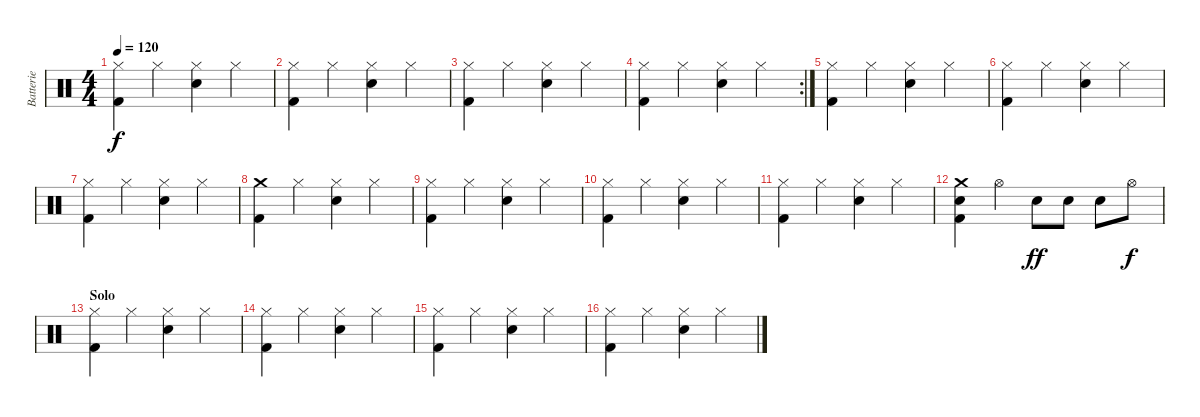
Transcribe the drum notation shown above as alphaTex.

\track ("Batterie" "Batterie") {instrument percussion}
\staff {score}
\articulation defaults
\ts (4 4)
\tempo 120
\clef neutral
\ks c
("Hi-Hat (closed)" "Kick (hit) 2").4{dy f} "Hi-Hat (closed)".4 ("Hi-Hat (closed)" "Snare (hit) 2").4 "Hi-Hat (closed)".4 |
("Hi-Hat (closed)" "Kick (hit) 2").4 "Hi-Hat (closed)".4 ("Hi-Hat (closed)" "Snare (hit) 2").4 "Hi-Hat (closed)".4 |
("Hi-Hat (closed)" "Kick (hit) 2").4 "Hi-Hat (closed)".4 ("Hi-Hat (closed)" "Snare (hit) 2").4 "Hi-Hat (closed)".4 |
\rc 2
("Hi-Hat (closed)" "Kick (hit) 2").4 "Hi-Hat (closed)".4 ("Hi-Hat (closed)" "Snare (hit) 2").4 "Hi-Hat (closed)".4 |
("Hi-Hat (closed)" "Kick (hit) 2").4 "Hi-Hat (closed)".4 ("Hi-Hat (closed)" "Snare (hit) 2").4 "Hi-Hat (closed)".4 |
("Hi-Hat (closed)" "Kick (hit) 2").4 "Hi-Hat (closed)".4 ("Hi-Hat (closed)" "Snare (hit) 2").4 "Hi-Hat (closed)".4 |
("Hi-Hat (closed)" "Kick (hit) 2").4 "Hi-Hat (closed)".4 ("Hi-Hat (closed)" "Snare (hit) 2").4 "Hi-Hat (closed)".4 |
("Crash medium (hit)" "Kick (hit) 2").4 "Hi-Hat (closed)".4 ("Hi-Hat (closed)" "Snare (hit) 2").4 "Hi-Hat (closed)".4 |
("Hi-Hat (closed)" "Kick (hit) 2").4 "Hi-Hat (closed)".4 ("Hi-Hat (closed)" "Snare (hit) 2").4 "Hi-Hat (closed)".4 |
("Hi-Hat (closed)" "Kick (hit) 2").4 "Hi-Hat (closed)".4 ("Hi-Hat (closed)" "Snare (hit) 2").4 "Hi-Hat (closed)".4 |
("Hi-Hat (closed)" "Kick (hit) 2").4 "Hi-Hat (closed)".4 ("Hi-Hat (closed)" "Snare (hit) 2").4 "Hi-Hat (closed)".4 |
("Crash medium (hit)" "Snare (hit) 2" "Kick (hit) 2").4 "Hi-Hat (open)".4 "Snare (hit) 2".8{dy ff} "Snare (hit) 2".8 "Snare (hit) 2".8 "Hi-Hat (open)".8{dy f} |
\section ("" "Solo")
("Hi-Hat (closed)" "Kick (hit) 2").4 "Hi-Hat (closed)".4 ("Hi-Hat (closed)" "Snare (hit) 2").4 "Hi-Hat (closed)".4 |
("Hi-Hat (closed)" "Kick (hit) 2").4 "Hi-Hat (closed)".4 ("Hi-Hat (closed)" "Snare (hit) 2").4 "Hi-Hat (closed)".4 |
("Hi-Hat (closed)" "Kick (hit) 2").4 "Hi-Hat (closed)".4 ("Hi-Hat (closed)" "Snare (hit) 2").4 "Hi-Hat (closed)".4 |
("Hi-Hat (closed)" "Kick (hit) 2").4 "Hi-Hat (closed)".4 ("Hi-Hat (closed)" "Snare (hit) 2").4 "Hi-Hat (closed)".4
